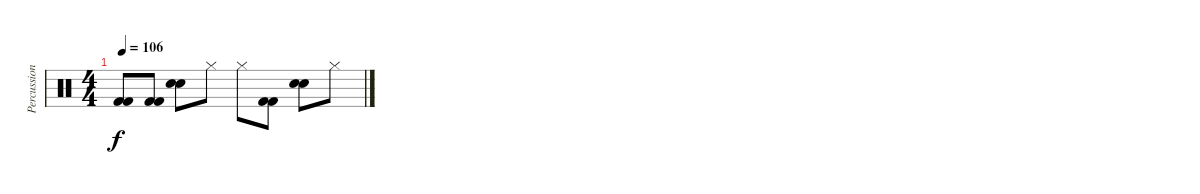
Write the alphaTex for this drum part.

\track ("Percussion" "Percussion") {instrument percussion}
\staff {score}
\articulation defaults
\ts (4 4)
\tempo 106
\clef neutral
\ks c
("Kick (hit) 2" "Kick (hit) 2").8{dy f} ("Kick (hit) 2" "Kick (hit) 2").8 ("Electric Snare (hit)" "Electric Snare (hit)").8 "Hi-Hat (closed)".8 "Hi-Hat (closed)".8 ("Kick (hit) 2" "Kick (hit) 2").8 ("Electric Snare (hit)" "Electric Snare (hit)").8 "Hi-Hat (closed)".8
